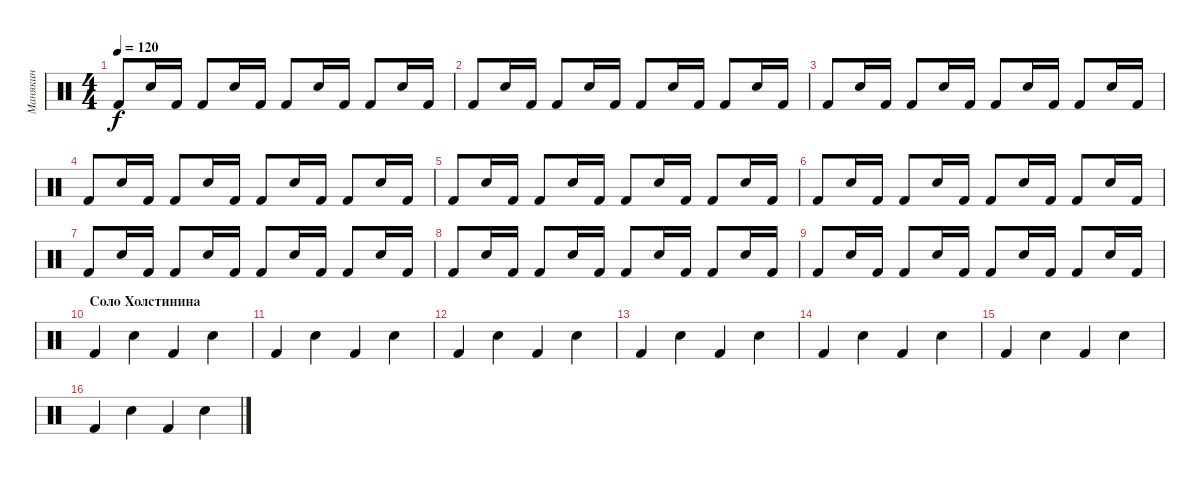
\track ("Манякин" "Манякин") {instrument percussion}
\staff {score}
\articulation defaults
\ts (4 4)
\tempo 120
\clef neutral
\ks c "Kick (hit) 2".8{dy f} "Snare (hit) 2".16 "Kick (hit) 2".16 "Kick (hit) 2".8 "Snare (hit) 2".16 "Kick (hit) 2".16 "Kick (hit) 2".8 "Snare (hit) 2".16 "Kick (hit) 2".16 "Kick (hit) 2".8 "Snare (hit) 2".16 "Kick (hit) 2".16
|
"Kick (hit) 2".8 "Snare (hit) 2".16 "Kick (hit) 2".16 "Kick (hit) 2".8 "Snare (hit) 2".16 "Kick (hit) 2".16 "Kick (hit) 2".8 "Snare (hit) 2".16 "Kick (hit) 2".16 "Kick (hit) 2".8 "Snare (hit) 2".16 "Kick (hit) 2".16 |
"Kick (hit) 2".8 "Snare (hit) 2".16 "Kick (hit) 2".16 "Kick (hit) 2".8 "Snare (hit) 2".16 "Kick (hit) 2".16 "Kick (hit) 2".8 "Snare (hit) 2".16 "Kick (hit) 2".16 "Kick (hit) 2".8 "Snare (hit) 2".16 "Kick (hit) 2".16 |
"Kick (hit) 2".8 "Snare (hit) 2".16 "Kick (hit) 2".16 "Kick (hit) 2".8 "Snare (hit) 2".16 "Kick (hit) 2".16 "Kick (hit) 2".8 "Snare (hit) 2".16 "Kick (hit) 2".16 "Kick (hit) 2".8 "Snare (hit) 2".16 "Kick (hit) 2".16 |
"Kick (hit) 2".8 "Snare (hit) 2".16 "Kick (hit) 2".16 "Kick (hit) 2".8 "Snare (hit) 2".16 "Kick (hit) 2".16 "Kick (hit) 2".8 "Snare (hit) 2".16 "Kick (hit) 2".16 "Kick (hit) 2".8 "Snare (hit) 2".16 "Kick (hit) 2".16 |
"Kick (hit) 2".8 "Snare (hit) 2".16 "Kick (hit) 2".16 "Kick (hit) 2".8 "Snare (hit) 2".16 "Kick (hit) 2".16 "Kick (hit) 2".8 "Snare (hit) 2".16 "Kick (hit) 2".16 "Kick (hit) 2".8 "Snare (hit) 2".16 "Kick (hit) 2".16 |
"Kick (hit) 2".8 "Snare (hit) 2".16 "Kick (hit) 2".16 "Kick (hit) 2".8 "Snare (hit) 2".16 "Kick (hit) 2".16 "Kick (hit) 2".8 "Snare (hit) 2".16 "Kick (hit) 2".16 "Kick (hit) 2".8 "Snare (hit) 2".16 "Kick (hit) 2".16 |
"Kick (hit) 2".8 "Snare (hit) 2".16 "Kick (hit) 2".16 "Kick (hit) 2".8 "Snare (hit) 2".16 "Kick (hit) 2".16 "Kick (hit) 2".8 "Snare (hit) 2".16 "Kick (hit) 2".16 "Kick (hit) 2".8 "Snare (hit) 2".16 "Kick (hit) 2".16 |
"Kick (hit) 2".8 "Snare (hit) 2".16 "Kick (hit) 2".16 "Kick (hit) 2".8 "Snare (hit) 2".16 "Kick (hit) 2".16 "Kick (hit) 2".8 "Snare (hit) 2".16 "Kick (hit) 2".16 "Kick (hit) 2".8 "Snare (hit) 2".16 "Kick (hit) 2".16 |
\section ("" "Соло Холстинина")
"Kick (hit) 2".4 "Snare (hit) 2".4 "Kick (hit) 2".4 "Snare (hit) 2".4 |
"Kick (hit) 2".4 "Snare (hit) 2".4 "Kick (hit) 2".4 "Snare (hit) 2".4 |
"Kick (hit) 2".4 "Snare (hit) 2".4 "Kick (hit) 2".4 "Snare (hit) 2".4 |
"Kick (hit) 2".4 "Snare (hit) 2".4 "Kick (hit) 2".4 "Snare (hit) 2".4 |
"Kick (hit) 2".4 "Snare (hit) 2".4 "Kick (hit) 2".4 "Snare (hit) 2".4 |
"Kick (hit) 2".4 "Snare (hit) 2".4 "Kick (hit) 2".4 "Snare (hit) 2".4 |
"Kick (hit) 2".4 "Snare (hit) 2".4 "Kick (hit) 2".4 "Snare (hit) 2".4
